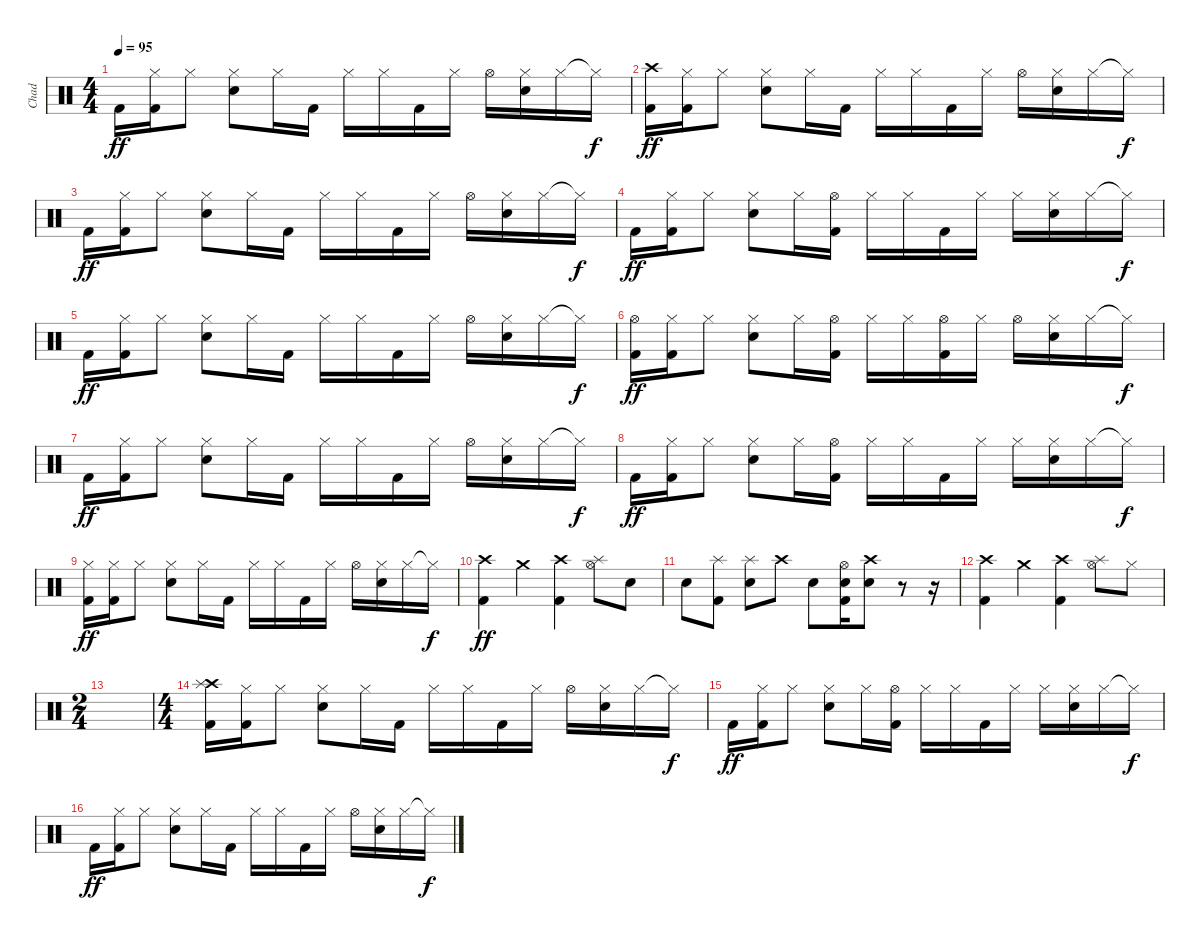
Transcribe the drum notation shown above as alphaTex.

\track ("Chad" "Chad") {instrument percussion}
\staff {score}
\articulation defaults
\ts (4 4)
\tempo 95
\clef neutral
\ks c "Kick (hit) 2".16{dy ff}
("Hi-Hat (closed)" "Kick (hit) 2").16 "Hi-Hat (closed)".8 ("Electric Snare (hit)" "Hi-Hat (closed)").8 "Hi-Hat (closed)".16 "Kick (hit) 2".16 "Hi-Hat (closed)".16 "Hi-Hat (closed)".16 "Kick (hit) 2".16 "Hi-Hat (closed)".16 "Hi-Hat (open)".16 ("Electric Snare (hit)" "Hi-Hat (closed)").16 "Hi-Hat (closed)".16 "Hi-Hat (closed)"{t}.16{dy f} |
("Crash high (hit)" "Kick (hit) 2").16{dy ff} ("Hi-Hat (closed)" "Kick (hit) 2").16 "Hi-Hat (closed)".8 ("Electric Snare (hit)" "Hi-Hat (closed)").8 "Hi-Hat (closed)".16 "Kick (hit) 2".16 "Hi-Hat (closed)".16 "Hi-Hat (closed)".16 "Kick (hit) 2".16 "Hi-Hat (closed)".16 "Hi-Hat (open)".16 ("Electric Snare (hit)" "Hi-Hat (closed)").16 "Hi-Hat (closed)".16 "Hi-Hat (closed)"{t}.16{dy f} |
"Kick (hit) 2".16{dy ff} ("Hi-Hat (closed)" "Kick (hit) 2").16 "Hi-Hat (closed)".8 ("Electric Snare (hit)" "Hi-Hat (closed)").8 "Hi-Hat (closed)".16 "Kick (hit) 2".16 "Hi-Hat (closed)".16 "Hi-Hat (closed)".16 "Kick (hit) 2".16 "Hi-Hat (closed)".16 "Hi-Hat (open)".16 ("Electric Snare (hit)" "Hi-Hat (closed)").16 "Hi-Hat (closed)".16 "Hi-Hat (closed)"{t}.16{dy f} |
"Kick (hit) 2".16{dy ff} ("Hi-Hat (closed)" "Kick (hit) 2").16 "Hi-Hat (closed)".8 ("Electric Snare (hit)" "Hi-Hat (closed)").8 "Hi-Hat (closed)".16 ("Hi-Hat (open)" "Kick (hit) 2").16 "Hi-Hat (closed)".16 "Hi-Hat (closed)".16 "Kick (hit) 2".16 "Hi-Hat (closed)".16 "Hi-Hat (closed)".16 ("Electric Snare (hit)" "Hi-Hat (closed)").16 "Hi-Hat (closed)".16 "Hi-Hat (closed)"{t}.16{dy f} |
"Kick (hit) 2".16{dy ff} ("Hi-Hat (closed)" "Kick (hit) 2").16 "Hi-Hat (closed)".8 ("Electric Snare (hit)" "Hi-Hat (closed)").8 "Hi-Hat (closed)".16 "Kick (hit) 2".16 "Hi-Hat (closed)".16 "Hi-Hat (closed)".16 "Kick (hit) 2".16 "Hi-Hat (closed)".16 "Hi-Hat (open)".16 ("Electric Snare (hit)" "Hi-Hat (closed)").16 "Hi-Hat (closed)".16 "Hi-Hat (closed)"{t}.16{dy f} |
("Hi-Hat (open)" "Kick (hit) 2").16{dy ff} ("Hi-Hat (closed)" "Kick (hit) 2").16 "Hi-Hat (closed)".8 ("Electric Snare (hit)" "Hi-Hat (closed)").8 "Hi-Hat (closed)".16 ("Hi-Hat (open)" "Kick (hit) 2").16 "Hi-Hat (closed)".16 "Hi-Hat (closed)".16 ("Hi-Hat (open)" "Kick (hit) 2").16 "Hi-Hat (closed)".16 "Hi-Hat (open)".16 ("Electric Snare (hit)" "Hi-Hat (closed)").16 "Hi-Hat (closed)".16 "Hi-Hat (closed)"{t}.16{dy f} |
"Kick (hit) 2".16{dy ff} ("Hi-Hat (closed)" "Kick (hit) 2").16 "Hi-Hat (closed)".8 ("Electric Snare (hit)" "Hi-Hat (closed)").8 "Hi-Hat (closed)".16 "Kick (hit) 2".16 "Hi-Hat (closed)".16 "Hi-Hat (closed)".16 "Kick (hit) 2".16 "Hi-Hat (closed)".16 "Hi-Hat (open)".16 ("Electric Snare (hit)" "Hi-Hat (closed)").16 "Hi-Hat (closed)".16 "Hi-Hat (closed)"{t}.16{dy f} |
"Kick (hit) 2".16{dy ff} ("Hi-Hat (closed)" "Kick (hit) 2").16 "Hi-Hat (closed)".8 ("Electric Snare (hit)" "Hi-Hat (closed)").8 "Hi-Hat (closed)".16 ("Hi-Hat (open)" "Kick (hit) 2").16 "Hi-Hat (closed)".16 "Hi-Hat (closed)".16 "Kick (hit) 2".16 "Hi-Hat (closed)".16 "Hi-Hat (closed)".16 ("Electric Snare (hit)" "Hi-Hat (closed)").16 "Hi-Hat (closed)".16 "Hi-Hat (closed)"{t}.16{dy f} |
("Hi-Hat (closed)" "Kick (hit) 2").16{dy ff} ("Hi-Hat (closed)" "Kick (hit) 2").16 "Hi-Hat (closed)".8 ("Electric Snare (hit)" "Hi-Hat (closed)").8 "Hi-Hat (closed)".16 "Kick (hit) 2".16 "Hi-Hat (closed)".16 "Hi-Hat (closed)".16 "Kick (hit) 2".16 "Hi-Hat (closed)".16 "Hi-Hat (open)".16 ("Electric Snare (hit)" "Hi-Hat (closed)").16 "Hi-Hat (closed)".16 "Hi-Hat (closed)"{t}.16{dy f} |
("Crash high (hit)" "Kick (hit) 2").4{dy ff} "Crash medium (hit)".4 ("Crash high (hit)" "Kick (hit) 2").4 ("Hi-Hat (open)" "Splash (hit)").8 "Electric Snare (hit)".8 |
"Electric Snare (hit)".8 ("Splash (hit)" "Kick (hit) 2").8 ("Splash (hit)" "Electric Snare (hit)").8 "Crash high (hit)".8 "Electric Snare (hit)".8 ("Electric Snare (hit)" "Hi-Hat (open)" "Kick (hit) 2").16 ("Crash high (hit)" "Electric Snare (hit)").8 r.8 r.16 |
("Crash high (hit)" "Kick (hit) 2").4 "Crash medium (hit)".4 ("Crash high (hit)" "Kick (hit) 2").4 ("Hi-Hat (open)" "Splash (hit)").8 "Hi-Hat (closed)".8 |
\ts (2 4)
|
\ts (4 4)
("Crash high (hit)" "Splash (hit)" "Kick (hit) 2").16 ("Hi-Hat (closed)" "Kick (hit) 2").16 "Hi-Hat (closed)".8 ("Electric Snare (hit)" "Hi-Hat (closed)").8 "Hi-Hat (closed)".16 "Kick (hit) 2".16 "Hi-Hat (closed)".16 "Hi-Hat (closed)".16 "Kick (hit) 2".16 "Hi-Hat (closed)".16 "Hi-Hat (open)".16 ("Electric Snare (hit)" "Hi-Hat (closed)").16 "Hi-Hat (closed)".16 "Hi-Hat (closed)"{t}.16{dy f} |
"Kick (hit) 2".16{dy ff} ("Hi-Hat (closed)" "Kick (hit) 2").16 "Hi-Hat (closed)".8 ("Electric Snare (hit)" "Hi-Hat (closed)").8 "Hi-Hat (closed)".16 ("Hi-Hat (open)" "Kick (hit) 2").16 "Hi-Hat (closed)".16 "Hi-Hat (closed)".16 "Kick (hit) 2".16 "Hi-Hat (closed)".16 "Hi-Hat (closed)".16 ("Electric Snare (hit)" "Hi-Hat (closed)").16 "Hi-Hat (closed)".16 "Hi-Hat (closed)"{t}.16{dy f} |
"Kick (hit) 2".16{dy ff} ("Hi-Hat (closed)" "Kick (hit) 2").16 "Hi-Hat (closed)".8 ("Electric Snare (hit)" "Hi-Hat (closed)").8 "Hi-Hat (closed)".16 "Kick (hit) 2".16 "Hi-Hat (closed)".16 "Hi-Hat (closed)".16 "Kick (hit) 2".16 "Hi-Hat (closed)".16 "Hi-Hat (open)".16 ("Electric Snare (hit)" "Hi-Hat (closed)").16 "Hi-Hat (closed)".16 "Hi-Hat (closed)"{t}.16{dy f}
